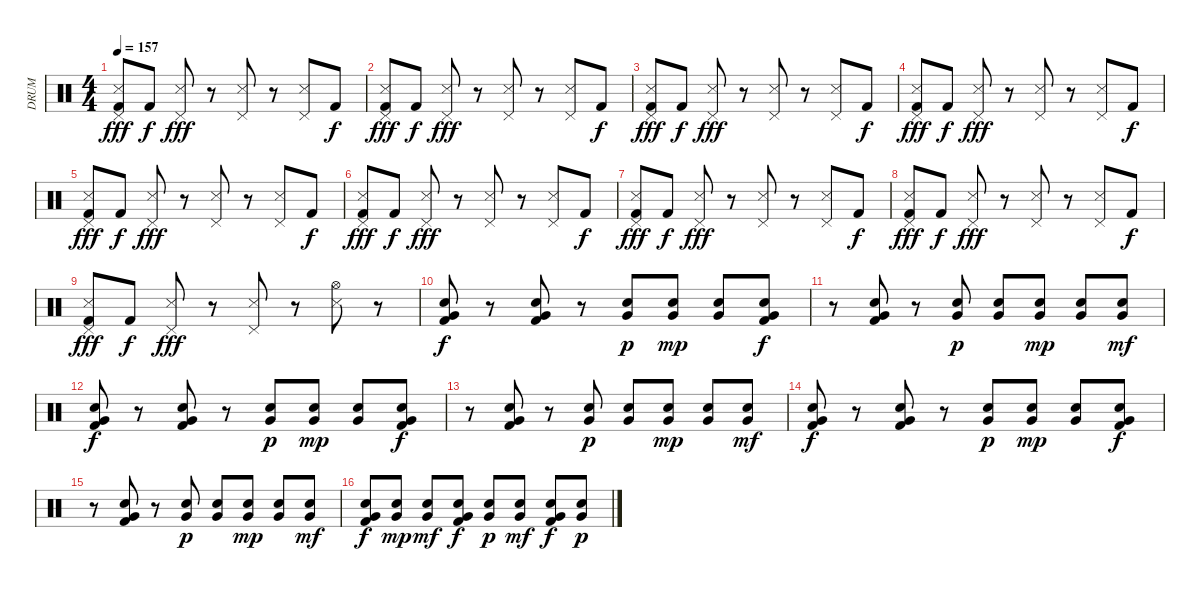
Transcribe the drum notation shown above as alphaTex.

\track ("DRUM" "DRUM") {instrument percussion}
\staff {score}
\articulation defaults
\ts (4 4)
\tempo 157
\clef neutral
\ks c
("Pedal Hi-Hat (hit)" "Snare (side stick) 3" "Kick (hit) 2").8{dy fff} "Kick (hit) 2".8{dy f} ("Pedal Hi-Hat (hit)" "Snare (side stick) 3").8{dy fff} r.8 ("Pedal Hi-Hat (hit)" "Snare (side stick) 3").8 r.8 ("Pedal Hi-Hat (hit)" "Snare (side stick) 3").8 "Kick (hit) 2".8{dy f} |
("Pedal Hi-Hat (hit)" "Snare (side stick) 3" "Kick (hit) 2").8{dy fff} "Kick (hit) 2".8{dy f} ("Pedal Hi-Hat (hit)" "Snare (side stick) 3").8{dy fff} r.8 ("Pedal Hi-Hat (hit)" "Snare (side stick) 3").8 r.8 ("Pedal Hi-Hat (hit)" "Snare (side stick) 3").8 "Kick (hit) 2".8{dy f} |
("Pedal Hi-Hat (hit)" "Snare (side stick) 3" "Kick (hit) 2").8{dy fff} "Kick (hit) 2".8{dy f} ("Pedal Hi-Hat (hit)" "Snare (side stick) 3").8{dy fff} r.8 ("Pedal Hi-Hat (hit)" "Snare (side stick) 3").8 r.8 ("Pedal Hi-Hat (hit)" "Snare (side stick) 3").8 "Kick (hit) 2".8{dy f} |
("Pedal Hi-Hat (hit)" "Snare (side stick) 3" "Kick (hit) 2").8{dy fff} "Kick (hit) 2".8{dy f} ("Pedal Hi-Hat (hit)" "Snare (side stick) 3").8{dy fff} r.8 ("Pedal Hi-Hat (hit)" "Snare (side stick) 3").8 r.8 ("Pedal Hi-Hat (hit)" "Snare (side stick) 3").8 "Kick (hit) 2".8{dy f} |
("Pedal Hi-Hat (hit)" "Snare (side stick) 3" "Kick (hit) 2").8{dy fff} "Kick (hit) 2".8{dy f} ("Pedal Hi-Hat (hit)" "Snare (side stick) 3").8{dy fff} r.8 ("Pedal Hi-Hat (hit)" "Snare (side stick) 3").8 r.8 ("Pedal Hi-Hat (hit)" "Snare (side stick) 3").8 "Kick (hit) 2".8{dy f} |
("Pedal Hi-Hat (hit)" "Snare (side stick) 3" "Kick (hit) 2").8{dy fff} "Kick (hit) 2".8{dy f} ("Pedal Hi-Hat (hit)" "Snare (side stick) 3").8{dy fff} r.8 ("Pedal Hi-Hat (hit)" "Snare (side stick) 3").8 r.8 ("Pedal Hi-Hat (hit)" "Snare (side stick) 3").8 "Kick (hit) 2".8{dy f} |
("Pedal Hi-Hat (hit)" "Snare (side stick) 3" "Kick (hit) 2").8{dy fff} "Kick (hit) 2".8{dy f} ("Pedal Hi-Hat (hit)" "Snare (side stick) 3").8{dy fff} r.8 ("Pedal Hi-Hat (hit)" "Snare (side stick) 3").8 r.8 ("Pedal Hi-Hat (hit)" "Snare (side stick) 3").8 "Kick (hit) 2".8{dy f} |
("Pedal Hi-Hat (hit)" "Snare (side stick) 3" "Kick (hit) 2").8{dy fff} "Kick (hit) 2".8{dy f} ("Pedal Hi-Hat (hit)" "Snare (side stick) 3").8{dy fff} r.8 ("Pedal Hi-Hat (hit)" "Snare (side stick) 3").8 r.8 ("Pedal Hi-Hat (hit)" "Snare (side stick) 3").8 "Kick (hit) 2".8{dy f} |
("Pedal Hi-Hat (hit)" "Snare (side stick) 3" "Kick (hit) 2").8{dy fff} "Kick (hit) 2".8{dy f} ("Pedal Hi-Hat (hit)" "Snare (side stick) 3").8{dy fff} r.8 ("Pedal Hi-Hat (hit)" "Snare (side stick) 3").8 r.8 ("Hi-Hat (open)" "Snare (side stick) 3").8 r.8 |
("Snare (hit) 2" "Kick (hit) 2" "Very Low Tom (hit)").8{dy f} r.8 ("Kick (hit) 2" "Snare (hit) 2" "Very Low Tom (hit)").8 r.8 ("Very Low Tom (hit)" "Snare (hit) 2").8{dy p} ("Very Low Tom (hit)" "Snare (hit) 2").8{dy mp} ("Snare (hit) 2" "Very Low Tom (hit)").8 ("Very Low Tom (hit)" "Kick (hit) 2" "Snare (hit) 2").8{dy f} |
r.8 ("Very Low Tom (hit)" "Kick (hit) 2" "Snare (hit) 2").8 r.8 ("Very Low Tom (hit)" "Snare (hit) 2").8{dy p} ("Snare (hit) 2" "Very Low Tom (hit)").8 ("Very Low Tom (hit)" "Snare (hit) 2").8{dy mp} ("Snare (hit) 2" "Very Low Tom (hit)").8 ("Snare (hit) 2" "Very Low Tom (hit)").8{dy mf} |
("Snare (hit) 2" "Kick (hit) 2" "Very Low Tom (hit)").8{dy f} r.8 ("Kick (hit) 2" "Snare (hit) 2" "Very Low Tom (hit)").8 r.8 ("Very Low Tom (hit)" "Snare (hit) 2").8{dy p} ("Very Low Tom (hit)" "Snare (hit) 2").8{dy mp} ("Snare (hit) 2" "Very Low Tom (hit)").8 ("Very Low Tom (hit)" "Kick (hit) 2" "Snare (hit) 2").8{dy f} |
r.8 ("Very Low Tom (hit)" "Kick (hit) 2" "Snare (hit) 2").8 r.8 ("Very Low Tom (hit)" "Snare (hit) 2").8{dy p} ("Snare (hit) 2" "Very Low Tom (hit)").8 ("Very Low Tom (hit)" "Snare (hit) 2").8{dy mp} ("Snare (hit) 2" "Very Low Tom (hit)").8 ("Snare (hit) 2" "Very Low Tom (hit)").8{dy mf} |
("Snare (hit) 2" "Kick (hit) 2" "Very Low Tom (hit)").8{dy f} r.8 ("Kick (hit) 2" "Snare (hit) 2" "Very Low Tom (hit)").8 r.8 ("Very Low Tom (hit)" "Snare (hit) 2").8{dy p} ("Very Low Tom (hit)" "Snare (hit) 2").8{dy mp} ("Snare (hit) 2" "Very Low Tom (hit)").8 ("Very Low Tom (hit)" "Kick (hit) 2" "Snare (hit) 2").8{dy f} |
r.8 ("Very Low Tom (hit)" "Kick (hit) 2" "Snare (hit) 2").8 r.8 ("Very Low Tom (hit)" "Snare (hit) 2").8{dy p} ("Snare (hit) 2" "Very Low Tom (hit)").8 ("Very Low Tom (hit)" "Snare (hit) 2").8{dy mp} ("Snare (hit) 2" "Very Low Tom (hit)").8 ("Snare (hit) 2" "Very Low Tom (hit)").8{dy mf} |
("Snare (hit) 2" "Kick (hit) 2" "Very Low Tom (hit)").8{dy f} ("Snare (hit) 2" "Very Low Tom (hit)").8{dy mp} ("Snare (hit) 2" "Very Low Tom (hit)").8{dy mf} ("Kick (hit) 2" "Snare (hit) 2" "Very Low Tom (hit)").8{dy f} ("Very Low Tom (hit)" "Snare (hit) 2").8{dy p} ("Snare (hit) 2" "Very Low Tom (hit)").8{dy mf} ("Kick (hit) 2" "Snare (hit) 2" "Very Low Tom (hit)").8{dy f} ("Very Low Tom (hit)" "Snare (hit) 2").8{dy p}
